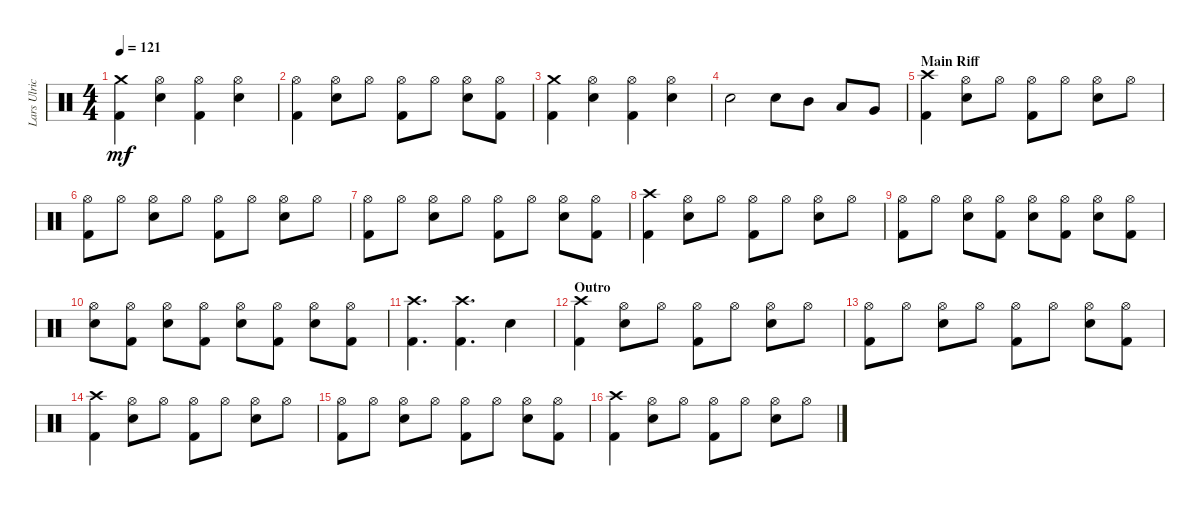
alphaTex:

\track ("Lars Ulrich" "Lars Ulric") {instrument percussion}
\staff {score}
\articulation defaults
\ts (4 4)
\tempo 121
\clef neutral
\ks c
("Crash medium (hit)" "Kick (hit) 2").4{dy mf} ("Hi-Hat (open)" "Snare (hit) 2").4 ("Hi-Hat (open)" "Kick (hit) 2").4 ("Hi-Hat (open)" "Snare (hit) 2").4 |
("Hi-Hat (open)" "Kick (hit) 2").4 ("Hi-Hat (open)" "Snare (hit) 2").8 "Hi-Hat (open)".8 ("Hi-Hat (open)" "Kick (hit) 2").8 "Hi-Hat (open)".8 ("Hi-Hat (open)" "Snare (hit) 2").8 ("Hi-Hat (open)" "Kick (hit) 2").8 |
("Crash medium (hit)" "Kick (hit) 2").4 ("Hi-Hat (open)" "Snare (hit) 2").4 ("Hi-Hat (open)" "Kick (hit) 2").4 ("Hi-Hat (open)" "Snare (hit) 2").4 |
"Snare (hit) 2".2 "Snare (hit) 2".8 "Mid Tom (hit)".8 "Low Tom (hit)".8 "Very Low Tom (hit)".8 |
\section ("" "Main Riff")
("Crash high (hit)" "Kick (hit) 2").4 ("Hi-Hat (open)" "Snare (hit) 2").8 "Hi-Hat (open)".8 ("Hi-Hat (open)" "Kick (hit) 2").8 "Hi-Hat (open)".8 ("Hi-Hat (open)" "Snare (hit) 2").8 "Hi-Hat (open)".8 |
("Hi-Hat (open)" "Kick (hit) 2").8 "Hi-Hat (open)".8 ("Hi-Hat (open)" "Snare (hit) 2").8 "Hi-Hat (open)".8 ("Hi-Hat (open)" "Kick (hit) 2").8 "Hi-Hat (open)".8 ("Hi-Hat (open)" "Snare (hit) 2").8 "Hi-Hat (open)".8 |
("Hi-Hat (open)" "Kick (hit) 2").8 "Hi-Hat (open)".8 ("Hi-Hat (open)" "Snare (hit) 2").8 "Hi-Hat (open)".8 ("Hi-Hat (open)" "Kick (hit) 2").8 "Hi-Hat (open)".8 ("Hi-Hat (open)" "Snare (hit) 2").8 ("Hi-Hat (open)" "Kick (hit) 2").8 |
("Crash high (hit)" "Kick (hit) 2").4 ("Hi-Hat (open)" "Snare (hit) 2").8 "Hi-Hat (open)".8 ("Hi-Hat (open)" "Kick (hit) 2").8 "Hi-Hat (open)".8 ("Hi-Hat (open)" "Snare (hit) 2").8 "Hi-Hat (open)".8 |
("Hi-Hat (open)" "Kick (hit) 2").8 "Hi-Hat (open)".8 ("Hi-Hat (open)" "Snare (hit) 2").8 ("Hi-Hat (open)" "Kick (hit) 2").8 ("Hi-Hat (open)" "Snare (hit) 2").8 ("Hi-Hat (open)" "Kick (hit) 2").8 ("Hi-Hat (open)" "Snare (hit) 2").8 ("Hi-Hat (open)" "Kick (hit) 2").8 |
("Hi-Hat (open)" "Snare (hit) 2").8 ("Hi-Hat (open)" "Kick (hit) 2").8 ("Hi-Hat (open)" "Snare (hit) 2").8 ("Hi-Hat (open)" "Kick (hit) 2").8 ("Hi-Hat (open)" "Snare (hit) 2").8 ("Hi-Hat (open)" "Kick (hit) 2").8 ("Hi-Hat (open)" "Snare (hit) 2").8 ("Hi-Hat (open)" "Kick (hit) 2").8 |
("Kick (hit) 2" "Crash high (hit)").4{d} ("Crash high (hit)" "Kick (hit) 2").4{d} "Snare (hit) 2".4 |
\section ("" "Outro")
("Crash high (hit)" "Kick (hit) 2").4 ("Hi-Hat (open)" "Snare (hit) 2").8 "Hi-Hat (open)".8 ("Hi-Hat (open)" "Kick (hit) 2").8 "Hi-Hat (open)".8 ("Hi-Hat (open)" "Snare (hit) 2").8 "Hi-Hat (open)".8 |
("Hi-Hat (open)" "Kick (hit) 2").8 "Hi-Hat (open)".8 ("Hi-Hat (open)" "Snare (hit) 2").8 "Hi-Hat (open)".8 ("Hi-Hat (open)" "Kick (hit) 2").8 "Hi-Hat (open)".8 ("Hi-Hat (open)" "Snare (hit) 2").8 ("Hi-Hat (open)" "Kick (hit) 2").8 |
("Crash high (hit)" "Kick (hit) 2").4 ("Hi-Hat (open)" "Snare (hit) 2").8 "Hi-Hat (open)".8 ("Hi-Hat (open)" "Kick (hit) 2").8 "Hi-Hat (open)".8 ("Hi-Hat (open)" "Snare (hit) 2").8 "Hi-Hat (open)".8 |
("Hi-Hat (open)" "Kick (hit) 2").8 "Hi-Hat (open)".8 ("Hi-Hat (open)" "Snare (hit) 2").8 "Hi-Hat (open)".8 ("Hi-Hat (open)" "Kick (hit) 2").8 "Hi-Hat (open)".8 ("Hi-Hat (open)" "Snare (hit) 2").8 ("Hi-Hat (open)" "Kick (hit) 2").8 |
("Crash high (hit)" "Kick (hit) 2").4 ("Hi-Hat (open)" "Snare (hit) 2").8 "Hi-Hat (open)".8 ("Hi-Hat (open)" "Kick (hit) 2").8 "Hi-Hat (open)".8 ("Hi-Hat (open)" "Snare (hit) 2").8 "Hi-Hat (open)".8
